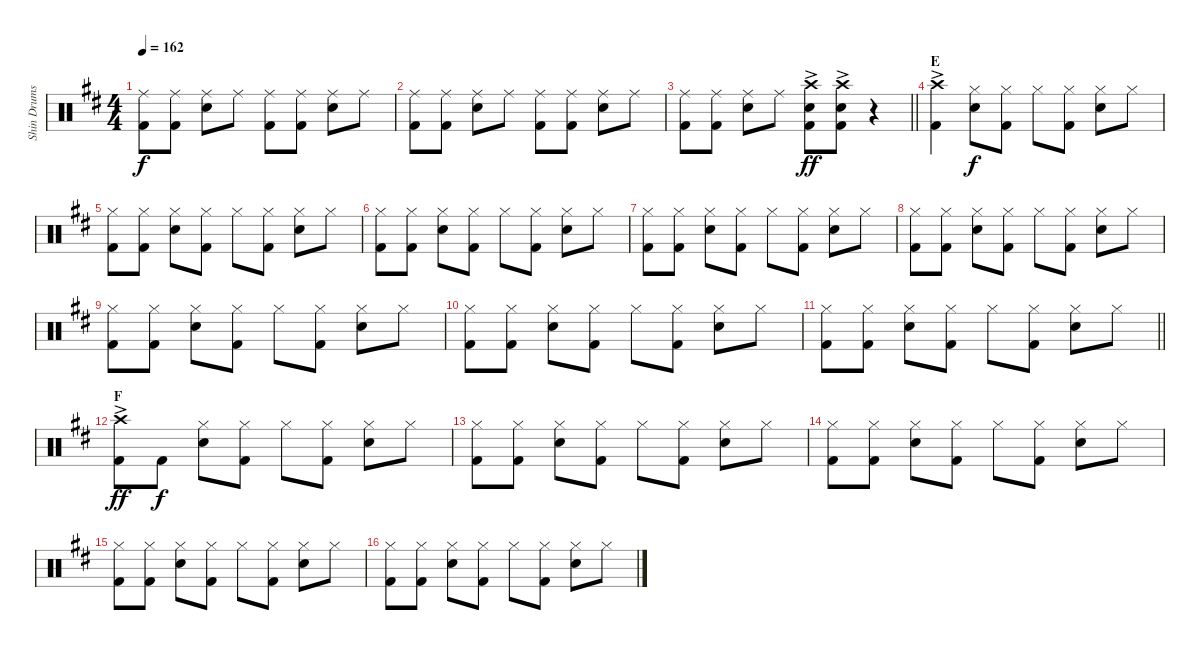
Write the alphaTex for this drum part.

\track ("Shin Drums" "Shin Drums") {instrument percussion}
\staff {score}
\articulation defaults
\ts (4 4)
\tempo 162
\clef neutral
\ks d
("Ride (middle)" "Kick (hit) 2").8{dy f} ("Ride (middle)" "Kick (hit) 2").8 ("Ride (middle)" "Snare (hit) 2").8 "Ride (middle)".8 ("Ride (middle)" "Kick (hit) 2").8 ("Ride (middle)" "Kick (hit) 2").8 ("Ride (middle)" "Snare (hit) 2").8 "Ride (middle)".8 |
("Ride (middle)" "Kick (hit) 2").8 ("Ride (middle)" "Kick (hit) 2").8 ("Ride (middle)" "Snare (hit) 2").8 "Ride (middle)".8 ("Ride (middle)" "Kick (hit) 2").8 ("Ride (middle)" "Kick (hit) 2").8 ("Ride (middle)" "Snare (hit) 2").8 "Ride (middle)".8 |
\barLineRight lightlight
("Ride (middle)" "Kick (hit) 2").8 ("Ride (middle)" "Kick (hit) 2").8 ("Ride (middle)" "Snare (hit) 2").8 "Ride (middle)".8 ("Crash high (hit)"{ac} "Snare (hit) 2" "Kick (hit) 2").8{dy ff} ("Crash high (hit)"{ac} "Snare (hit) 2" "Kick (hit) 2").8 r.4 |
\section ("" "E")
("Crash high (hit)"{ac} "Kick (hit) 2").4 ("Hi-Hat (closed)" "Snare (hit) 2").8{dy f} ("Hi-Hat (closed)" "Kick (hit) 2").8 "Hi-Hat (closed)".8 ("Hi-Hat (closed)" "Kick (hit) 2").8 ("Hi-Hat (closed)" "Snare (hit) 2").8 "Hi-Hat (closed)".8 |
("Hi-Hat (closed)" "Kick (hit) 2").8 ("Hi-Hat (closed)" "Kick (hit) 2").8 ("Hi-Hat (closed)" "Snare (hit) 2").8 ("Hi-Hat (closed)" "Kick (hit) 2").8 "Hi-Hat (closed)".8 ("Hi-Hat (closed)" "Kick (hit) 2").8 ("Hi-Hat (closed)" "Snare (hit) 2").8 "Hi-Hat (closed)".8 |
("Hi-Hat (closed)" "Kick (hit) 2").8 ("Hi-Hat (closed)" "Kick (hit) 2").8 ("Hi-Hat (closed)" "Snare (hit) 2").8 ("Hi-Hat (closed)" "Kick (hit) 2").8 "Hi-Hat (closed)".8 ("Hi-Hat (closed)" "Kick (hit) 2").8 ("Hi-Hat (closed)" "Snare (hit) 2").8 "Hi-Hat (closed)".8 |
("Hi-Hat (closed)" "Kick (hit) 2").8 ("Hi-Hat (closed)" "Kick (hit) 2").8 ("Hi-Hat (closed)" "Snare (hit) 2").8 ("Hi-Hat (closed)" "Kick (hit) 2").8 "Hi-Hat (closed)".8 ("Hi-Hat (closed)" "Kick (hit) 2").8 ("Hi-Hat (closed)" "Snare (hit) 2").8 "Hi-Hat (closed)".8 |
("Hi-Hat (closed)" "Kick (hit) 2").8 ("Hi-Hat (closed)" "Kick (hit) 2").8 ("Hi-Hat (closed)" "Snare (hit) 2").8 ("Hi-Hat (closed)" "Kick (hit) 2").8 "Hi-Hat (closed)".8 ("Hi-Hat (closed)" "Kick (hit) 2").8 ("Hi-Hat (closed)" "Snare (hit) 2").8 "Hi-Hat (closed)".8 |
("Hi-Hat (closed)" "Kick (hit) 2").8 ("Hi-Hat (closed)" "Kick (hit) 2").8 ("Hi-Hat (closed)" "Snare (hit) 2").8 ("Hi-Hat (closed)" "Kick (hit) 2").8 "Hi-Hat (closed)".8 ("Hi-Hat (closed)" "Kick (hit) 2").8 ("Hi-Hat (closed)" "Snare (hit) 2").8 "Hi-Hat (closed)".8 |
("Hi-Hat (closed)" "Kick (hit) 2").8 ("Hi-Hat (closed)" "Kick (hit) 2").8 ("Hi-Hat (closed)" "Snare (hit) 2").8 ("Hi-Hat (closed)" "Kick (hit) 2").8 "Hi-Hat (closed)".8 ("Hi-Hat (closed)" "Kick (hit) 2").8 ("Hi-Hat (closed)" "Snare (hit) 2").8 "Hi-Hat (closed)".8 |
\barLineRight lightlight
("Hi-Hat (closed)" "Kick (hit) 2").8 ("Hi-Hat (closed)" "Kick (hit) 2").8 ("Hi-Hat (closed)" "Snare (hit) 2").8 ("Hi-Hat (closed)" "Kick (hit) 2").8 "Hi-Hat (closed)".8 ("Hi-Hat (closed)" "Kick (hit) 2").8 ("Hi-Hat (closed)" "Snare (hit) 2").8 "Hi-Hat (closed)".8 |
\section ("" "F")
("Crash high (hit)"{ac} "Kick (hit) 2").8{dy ff} "Kick (hit) 2".8{dy f} ("Hi-Hat (closed)" "Snare (hit) 2").8 ("Hi-Hat (closed)" "Kick (hit) 2").8 "Hi-Hat (closed)".8 ("Hi-Hat (closed)" "Kick (hit) 2").8 ("Hi-Hat (closed)" "Snare (hit) 2").8 "Hi-Hat (closed)".8 |
("Hi-Hat (closed)" "Kick (hit) 2").8 ("Hi-Hat (closed)" "Kick (hit) 2").8 ("Hi-Hat (closed)" "Snare (hit) 2").8 ("Hi-Hat (closed)" "Kick (hit) 2").8 "Hi-Hat (closed)".8 ("Hi-Hat (closed)" "Kick (hit) 2").8 ("Hi-Hat (closed)" "Snare (hit) 2").8 "Hi-Hat (closed)".8 |
("Hi-Hat (closed)" "Kick (hit) 2").8 ("Hi-Hat (closed)" "Kick (hit) 2").8 ("Hi-Hat (closed)" "Snare (hit) 2").8 ("Hi-Hat (closed)" "Kick (hit) 2").8 "Hi-Hat (closed)".8 ("Hi-Hat (closed)" "Kick (hit) 2").8 ("Hi-Hat (closed)" "Snare (hit) 2").8 "Hi-Hat (closed)".8 |
("Hi-Hat (closed)" "Kick (hit) 2").8 ("Hi-Hat (closed)" "Kick (hit) 2").8 ("Hi-Hat (closed)" "Snare (hit) 2").8 ("Hi-Hat (closed)" "Kick (hit) 2").8 "Hi-Hat (closed)".8 ("Hi-Hat (closed)" "Kick (hit) 2").8 ("Hi-Hat (closed)" "Snare (hit) 2").8 "Hi-Hat (closed)".8 |
("Hi-Hat (closed)" "Kick (hit) 2").8 ("Hi-Hat (closed)" "Kick (hit) 2").8 ("Hi-Hat (closed)" "Snare (hit) 2").8 ("Hi-Hat (closed)" "Kick (hit) 2").8 "Hi-Hat (closed)".8 ("Hi-Hat (closed)" "Kick (hit) 2").8 ("Hi-Hat (closed)" "Snare (hit) 2").8 "Hi-Hat (closed)".8
